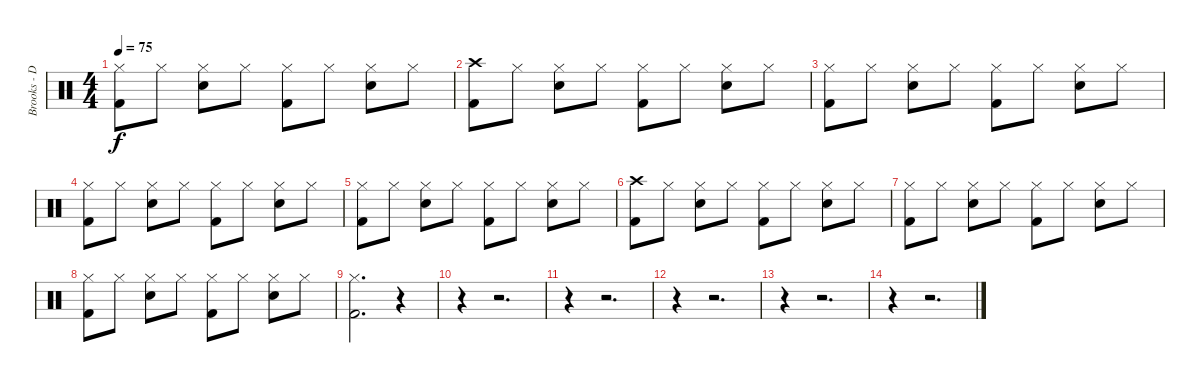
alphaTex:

\track ("Brooks - Drums" "Brooks - D") {instrument percussion}
\staff {score}
\articulation defaults
\ts (4 4)
\tempo 75
\clef neutral
\ks c
("Kick (hit) 2" "Hi-Hat (closed)").8{dy f} "Hi-Hat (closed)".8 ("Snare (hit) 2" "Hi-Hat (closed)").8 "Hi-Hat (closed)".8 ("Kick (hit) 2" "Hi-Hat (closed)").8 "Hi-Hat (closed)".8 ("Snare (hit) 2" "Hi-Hat (closed)").8 "Hi-Hat (closed)".8 |
("Kick (hit) 2" "Crash high (hit)").8 "Hi-Hat (closed)".8 ("Snare (hit) 2" "Hi-Hat (closed)").8 "Hi-Hat (closed)".8 ("Kick (hit) 2" "Hi-Hat (closed)").8 "Hi-Hat (closed)".8 ("Snare (hit) 2" "Hi-Hat (closed)").8 "Hi-Hat (closed)".8 |
("Kick (hit) 2" "Hi-Hat (closed)").8 "Hi-Hat (closed)".8 ("Snare (hit) 2" "Hi-Hat (closed)").8 "Hi-Hat (closed)".8 ("Kick (hit) 2" "Hi-Hat (closed)").8 "Hi-Hat (closed)".8 ("Snare (hit) 2" "Hi-Hat (closed)").8 "Hi-Hat (closed)".8 |
("Kick (hit) 2" "Hi-Hat (closed)").8 "Hi-Hat (closed)".8 ("Snare (hit) 2" "Hi-Hat (closed)").8 "Hi-Hat (closed)".8 ("Kick (hit) 2" "Hi-Hat (closed)").8 "Hi-Hat (closed)".8 ("Snare (hit) 2" "Hi-Hat (closed)").8 "Hi-Hat (closed)".8 |
("Kick (hit) 2" "Hi-Hat (closed)").8 "Hi-Hat (closed)".8 ("Snare (hit) 2" "Hi-Hat (closed)").8 "Hi-Hat (closed)".8 ("Kick (hit) 2" "Hi-Hat (closed)").8 "Hi-Hat (closed)".8 ("Snare (hit) 2" "Hi-Hat (closed)").8 "Hi-Hat (closed)".8 |
("Kick (hit) 2" "Crash high (hit)").8 "Hi-Hat (closed)".8 ("Snare (hit) 2" "Hi-Hat (closed)").8 "Hi-Hat (closed)".8 ("Kick (hit) 2" "Hi-Hat (closed)").8 "Hi-Hat (closed)".8 ("Snare (hit) 2" "Hi-Hat (closed)").8 "Hi-Hat (closed)".8 |
("Kick (hit) 2" "Hi-Hat (closed)").8 "Hi-Hat (closed)".8 ("Snare (hit) 2" "Hi-Hat (closed)").8 "Hi-Hat (closed)".8 ("Kick (hit) 2" "Hi-Hat (closed)").8 "Hi-Hat (closed)".8 ("Snare (hit) 2" "Hi-Hat (closed)").8 "Hi-Hat (closed)".8 |
("Kick (hit) 2" "Hi-Hat (closed)").8 "Hi-Hat (closed)".8 ("Snare (hit) 2" "Hi-Hat (closed)").8 "Hi-Hat (closed)".8 ("Kick (hit) 2" "Hi-Hat (closed)").8 "Hi-Hat (closed)".8 ("Snare (hit) 2" "Hi-Hat (closed)").8 "Hi-Hat (closed)".8 |
("Kick (hit) 2" "Hi-Hat (closed)").2{d} r.4 |
r.4 r.2{d} |
r.4 r.2{d} |
r.4 r.2{d} |
r.4 r.2{d} |
r.4 r.2{d}
